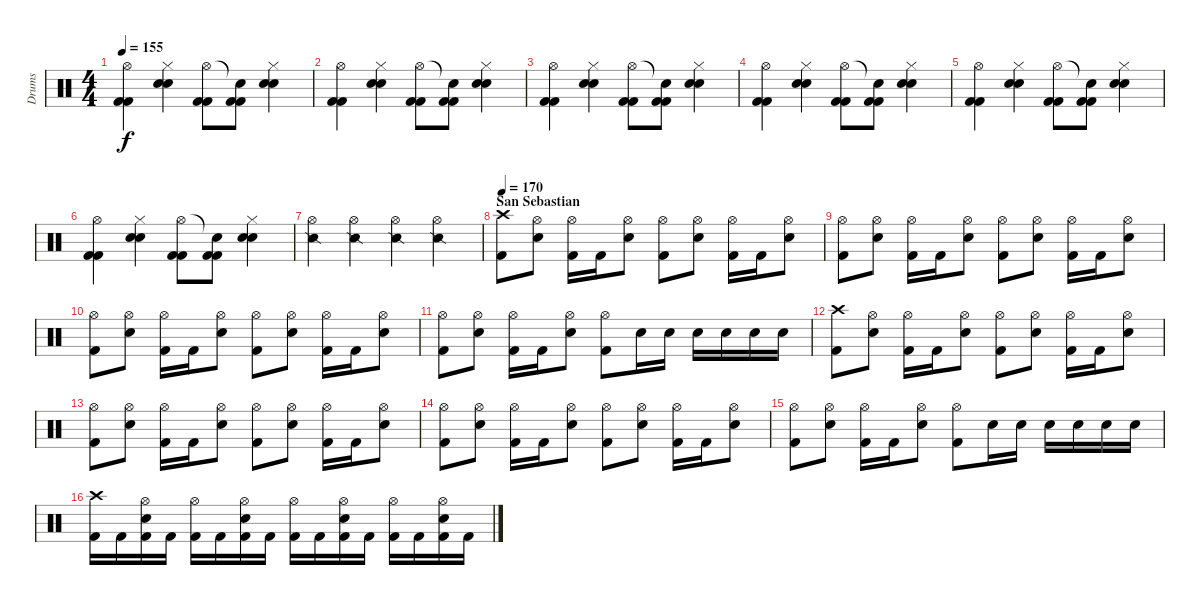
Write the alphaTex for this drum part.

\track ("Drums" "Drums") {instrument percussion}
\staff {score}
\articulation defaults
\ts (4 4)
\tempo 155
\clef neutral
\ks c
("Hi-Hat (open)" "Kick (hit) 2" "Kick (hit) 2").4{dy f} ("Hi-Hat (closed)" "Snare (hit) 2" "Snare (hit) 2").4 ("Hi-Hat (open)" "Kick (hit) 2" "Kick (hit) 2").8 ("Snare (hit)"{t} "Kick (hit) 2" "Kick (hit) 2").8 ("Hi-Hat (closed)" "Snare (hit) 2" "Snare (hit) 2").4 |
("Hi-Hat (open)" "Kick (hit) 2" "Kick (hit) 2").4 ("Hi-Hat (closed)" "Snare (hit) 2" "Snare (hit) 2").4 ("Hi-Hat (open)" "Kick (hit) 2" "Kick (hit) 2").8 ("Snare (hit)"{t} "Kick (hit) 2" "Kick (hit) 2").8 ("Hi-Hat (closed)" "Snare (hit) 2" "Snare (hit) 2").4 |
("Hi-Hat (open)" "Kick (hit) 2" "Kick (hit) 2").4 ("Hi-Hat (closed)" "Snare (hit) 2" "Snare (hit) 2").4 ("Hi-Hat (open)" "Kick (hit) 2" "Kick (hit) 2").8 ("Snare (hit)"{t} "Kick (hit) 2" "Kick (hit) 2").8 ("Hi-Hat (closed)" "Snare (hit) 2" "Snare (hit) 2").4 |
("Hi-Hat (open)" "Kick (hit) 2" "Kick (hit) 2").4 ("Hi-Hat (closed)" "Snare (hit) 2" "Snare (hit) 2").4 ("Hi-Hat (open)" "Kick (hit) 2" "Kick (hit) 2").8 ("Snare (hit)"{t} "Kick (hit) 2" "Kick (hit) 2").8 ("Hi-Hat (closed)" "Snare (hit) 2" "Snare (hit) 2").4 |
("Hi-Hat (open)" "Kick (hit) 2" "Kick (hit) 2").4 ("Hi-Hat (closed)" "Snare (hit) 2" "Snare (hit) 2").4 ("Hi-Hat (open)" "Kick (hit) 2" "Kick (hit) 2").8 ("Snare (hit)"{t} "Kick (hit) 2" "Kick (hit) 2").8 ("Hi-Hat (closed)" "Snare (hit) 2" "Snare (hit) 2").4 |
("Hi-Hat (open)" "Kick (hit) 2" "Kick (hit) 2").4 ("Hi-Hat (closed)" "Snare (hit) 2" "Snare (hit) 2").4 ("Hi-Hat (open)" "Kick (hit) 2" "Kick (hit) 2").8 ("Snare (hit)"{t} "Kick (hit) 2" "Kick (hit) 2").8 ("Hi-Hat (closed)" "Snare (hit) 2" "Snare (hit) 2").4 |
("Snare (side stick) 2" "Hi-Hat (open)").4 ("Snare (side stick) 2" "Hi-Hat (open)").4 ("Snare (side stick) 2" "Hi-Hat (open)").4 ("Snare (side stick) 2" "Hi-Hat (open)").4 |
\section ("" "San Sebastian")
\tempo 170
("Crash high (hit)" "Kick (hit) 2").8 ("Hi-Hat (open)" "Electric Snare (hit)").8 ("Hi-Hat (open)" "Kick (hit) 2").16 "Kick (hit) 2".16 ("Hi-Hat (open)" "Electric Snare (hit)").8 ("Hi-Hat (open)" "Kick (hit) 2").8 ("Hi-Hat (open)" "Electric Snare (hit)").8 ("Hi-Hat (open)" "Kick (hit) 2").16 "Kick (hit) 2".16 ("Hi-Hat (open)" "Electric Snare (hit)").8 |
("Hi-Hat (open)" "Kick (hit) 2").8 ("Hi-Hat (open)" "Electric Snare (hit)").8 ("Hi-Hat (open)" "Kick (hit) 2").16 "Kick (hit) 2".16 ("Hi-Hat (open)" "Electric Snare (hit)").8 ("Hi-Hat (open)" "Kick (hit) 2").8 ("Hi-Hat (open)" "Electric Snare (hit)").8 ("Hi-Hat (open)" "Kick (hit) 2").16 "Kick (hit) 2".16 ("Hi-Hat (open)" "Electric Snare (hit)").8 |
("Hi-Hat (open)" "Kick (hit) 2").8 ("Hi-Hat (open)" "Electric Snare (hit)").8 ("Hi-Hat (open)" "Kick (hit) 2").16 "Kick (hit) 2".16 ("Hi-Hat (open)" "Electric Snare (hit)").8 ("Hi-Hat (open)" "Kick (hit) 2").8 ("Hi-Hat (open)" "Electric Snare (hit)").8 ("Hi-Hat (open)" "Kick (hit) 2").16 "Kick (hit) 2".16 ("Hi-Hat (open)" "Electric Snare (hit)").8 |
("Hi-Hat (open)" "Kick (hit) 2").8 ("Hi-Hat (open)" "Electric Snare (hit)").8 ("Hi-Hat (open)" "Kick (hit) 2").16 "Kick (hit) 2".16 ("Hi-Hat (open)" "Electric Snare (hit)").8 ("Hi-Hat (open)" "Kick (hit) 2").8 "Electric Snare (hit)".16 "Electric Snare (hit)".16 "Electric Snare (hit)".16 "Electric Snare (hit)".16 "Electric Snare (hit)".16 "Electric Snare (hit)".16 |
("Crash high (hit)" "Kick (hit) 2").8 ("Hi-Hat (open)" "Electric Snare (hit)").8 ("Hi-Hat (open)" "Kick (hit) 2").16 "Kick (hit) 2".16 ("Hi-Hat (open)" "Electric Snare (hit)").8 ("Hi-Hat (open)" "Kick (hit) 2").8 ("Hi-Hat (open)" "Electric Snare (hit)").8 ("Hi-Hat (open)" "Kick (hit) 2").16 "Kick (hit) 2".16 ("Hi-Hat (open)" "Electric Snare (hit)").8 |
("Hi-Hat (open)" "Kick (hit) 2").8 ("Hi-Hat (open)" "Electric Snare (hit)").8 ("Hi-Hat (open)" "Kick (hit) 2").16 "Kick (hit) 2".16 ("Hi-Hat (open)" "Electric Snare (hit)").8 ("Hi-Hat (open)" "Kick (hit) 2").8 ("Hi-Hat (open)" "Electric Snare (hit)").8 ("Hi-Hat (open)" "Kick (hit) 2").16 "Kick (hit) 2".16 ("Hi-Hat (open)" "Electric Snare (hit)").8 |
("Hi-Hat (open)" "Kick (hit) 2").8 ("Hi-Hat (open)" "Electric Snare (hit)").8 ("Hi-Hat (open)" "Kick (hit) 2").16 "Kick (hit) 2".16 ("Hi-Hat (open)" "Electric Snare (hit)").8 ("Hi-Hat (open)" "Kick (hit) 2").8 ("Hi-Hat (open)" "Electric Snare (hit)").8 ("Hi-Hat (open)" "Kick (hit) 2").16 "Kick (hit) 2".16 ("Hi-Hat (open)" "Electric Snare (hit)").8 |
("Hi-Hat (open)" "Kick (hit) 2").8 ("Hi-Hat (open)" "Electric Snare (hit)").8 ("Hi-Hat (open)" "Kick (hit) 2").16 "Kick (hit) 2".16 ("Hi-Hat (open)" "Electric Snare (hit)").8 ("Hi-Hat (open)" "Kick (hit) 2").8 "Electric Snare (hit)".16 "Electric Snare (hit)".16 "Electric Snare (hit)".16 "Electric Snare (hit)".16 "Electric Snare (hit)".16 "Electric Snare (hit)".16 |
("Crash high (hit)" "Kick (hit) 2").16 "Kick (hit) 2".16 ("Hi-Hat (open)" "Electric Snare (hit)" "Kick (hit) 2").16 "Kick (hit) 2".16 ("Hi-Hat (open)" "Kick (hit) 2").16 "Kick (hit) 2".16 ("Hi-Hat (open)" "Electric Snare (hit)" "Kick (hit) 2").16 "Kick (hit) 2".16 ("Hi-Hat (open)" "Kick (hit) 2").16 "Kick (hit) 2".16 ("Hi-Hat (open)" "Electric Snare (hit)" "Kick (hit) 2").16 "Kick (hit) 2".16 ("Hi-Hat (open)" "Kick (hit) 2").16 "Kick (hit) 2".16 ("Hi-Hat (open)" "Electric Snare (hit)" "Kick (hit) 2").16 "Kick (hit) 2".16
